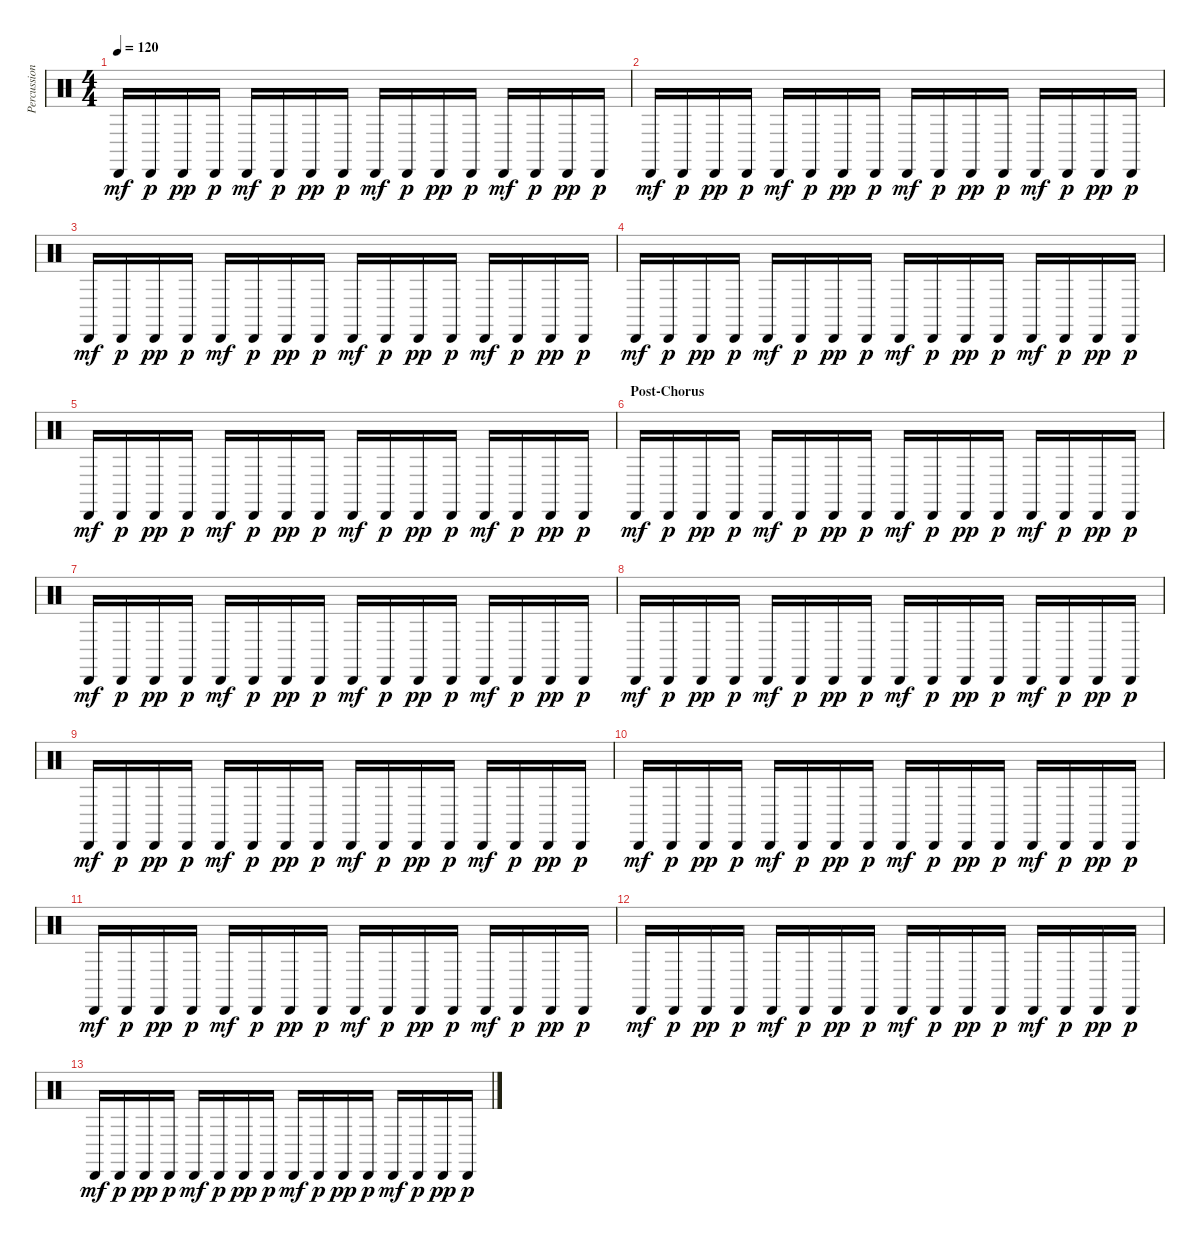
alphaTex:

\track ("Percussion" "Percussion") {instrument percussion}
\staff {score}
\articulation defaults
\ts (4 4)
\tempo 120
\clef neutral
\ks c "Cabasa (hit)".16{dy mf} "Cabasa (hit)".16{dy p} "Cabasa (hit)".16{dy pp} "Cabasa (hit)".16{dy p} "Cabasa (hit)".16{dy mf} "Cabasa (hit)".16{dy p} "Cabasa (hit)".16{dy pp} "Cabasa (hit)".16{dy p} "Cabasa (hit)".16{dy mf} "Cabasa (hit)".16{dy p} "Cabasa (hit)".16{dy pp} "Cabasa (hit)".16{dy p} "Cabasa (hit)".16{dy mf} "Cabasa (hit)".16{dy p} "Cabasa (hit)".16{dy pp} "Cabasa (hit)".16{dy p}
|
"Cabasa (hit)".16{dy mf} "Cabasa (hit)".16{dy p} "Cabasa (hit)".16{dy pp} "Cabasa (hit)".16{dy p} "Cabasa (hit)".16{dy mf} "Cabasa (hit)".16{dy p} "Cabasa (hit)".16{dy pp} "Cabasa (hit)".16{dy p} "Cabasa (hit)".16{dy mf} "Cabasa (hit)".16{dy p} "Cabasa (hit)".16{dy pp} "Cabasa (hit)".16{dy p} "Cabasa (hit)".16{dy mf} "Cabasa (hit)".16{dy p} "Cabasa (hit)".16{dy pp} "Cabasa (hit)".16{dy p} |
"Cabasa (hit)".16{dy mf} "Cabasa (hit)".16{dy p} "Cabasa (hit)".16{dy pp} "Cabasa (hit)".16{dy p} "Cabasa (hit)".16{dy mf} "Cabasa (hit)".16{dy p} "Cabasa (hit)".16{dy pp} "Cabasa (hit)".16{dy p} "Cabasa (hit)".16{dy mf} "Cabasa (hit)".16{dy p} "Cabasa (hit)".16{dy pp} "Cabasa (hit)".16{dy p} "Cabasa (hit)".16{dy mf} "Cabasa (hit)".16{dy p} "Cabasa (hit)".16{dy pp} "Cabasa (hit)".16{dy p} |
"Cabasa (hit)".16{dy mf} "Cabasa (hit)".16{dy p} "Cabasa (hit)".16{dy pp} "Cabasa (hit)".16{dy p} "Cabasa (hit)".16{dy mf} "Cabasa (hit)".16{dy p} "Cabasa (hit)".16{dy pp} "Cabasa (hit)".16{dy p} "Cabasa (hit)".16{dy mf} "Cabasa (hit)".16{dy p} "Cabasa (hit)".16{dy pp} "Cabasa (hit)".16{dy p} "Cabasa (hit)".16{dy mf} "Cabasa (hit)".16{dy p} "Cabasa (hit)".16{dy pp} "Cabasa (hit)".16{dy p} |
"Cabasa (hit)".16{dy mf} "Cabasa (hit)".16{dy p} "Cabasa (hit)".16{dy pp} "Cabasa (hit)".16{dy p} "Cabasa (hit)".16{dy mf} "Cabasa (hit)".16{dy p} "Cabasa (hit)".16{dy pp} "Cabasa (hit)".16{dy p} "Cabasa (hit)".16{dy mf} "Cabasa (hit)".16{dy p} "Cabasa (hit)".16{dy pp} "Cabasa (hit)".16{dy p} "Cabasa (hit)".16{dy mf} "Cabasa (hit)".16{dy p} "Cabasa (hit)".16{dy pp} "Cabasa (hit)".16{dy p} |
\section ("" "Post-Chorus")
"Cabasa (hit)".16{dy mf} "Cabasa (hit)".16{dy p} "Cabasa (hit)".16{dy pp} "Cabasa (hit)".16{dy p} "Cabasa (hit)".16{dy mf} "Cabasa (hit)".16{dy p} "Cabasa (hit)".16{dy pp} "Cabasa (hit)".16{dy p} "Cabasa (hit)".16{dy mf} "Cabasa (hit)".16{dy p} "Cabasa (hit)".16{dy pp} "Cabasa (hit)".16{dy p} "Cabasa (hit)".16{dy mf} "Cabasa (hit)".16{dy p} "Cabasa (hit)".16{dy pp} "Cabasa (hit)".16{dy p} |
"Cabasa (hit)".16{dy mf} "Cabasa (hit)".16{dy p} "Cabasa (hit)".16{dy pp} "Cabasa (hit)".16{dy p} "Cabasa (hit)".16{dy mf} "Cabasa (hit)".16{dy p} "Cabasa (hit)".16{dy pp} "Cabasa (hit)".16{dy p} "Cabasa (hit)".16{dy mf} "Cabasa (hit)".16{dy p} "Cabasa (hit)".16{dy pp} "Cabasa (hit)".16{dy p} "Cabasa (hit)".16{dy mf} "Cabasa (hit)".16{dy p} "Cabasa (hit)".16{dy pp} "Cabasa (hit)".16{dy p} |
"Cabasa (hit)".16{dy mf} "Cabasa (hit)".16{dy p} "Cabasa (hit)".16{dy pp} "Cabasa (hit)".16{dy p} "Cabasa (hit)".16{dy mf} "Cabasa (hit)".16{dy p} "Cabasa (hit)".16{dy pp} "Cabasa (hit)".16{dy p} "Cabasa (hit)".16{dy mf} "Cabasa (hit)".16{dy p} "Cabasa (hit)".16{dy pp} "Cabasa (hit)".16{dy p} "Cabasa (hit)".16{dy mf} "Cabasa (hit)".16{dy p} "Cabasa (hit)".16{dy pp} "Cabasa (hit)".16{dy p} |
"Cabasa (hit)".16{dy mf} "Cabasa (hit)".16{dy p} "Cabasa (hit)".16{dy pp} "Cabasa (hit)".16{dy p} "Cabasa (hit)".16{dy mf} "Cabasa (hit)".16{dy p} "Cabasa (hit)".16{dy pp} "Cabasa (hit)".16{dy p} "Cabasa (hit)".16{dy mf} "Cabasa (hit)".16{dy p} "Cabasa (hit)".16{dy pp} "Cabasa (hit)".16{dy p} "Cabasa (hit)".16{dy mf} "Cabasa (hit)".16{dy p} "Cabasa (hit)".16{dy pp} "Cabasa (hit)".16{dy p} |
"Cabasa (hit)".16{dy mf} "Cabasa (hit)".16{dy p} "Cabasa (hit)".16{dy pp} "Cabasa (hit)".16{dy p} "Cabasa (hit)".16{dy mf} "Cabasa (hit)".16{dy p} "Cabasa (hit)".16{dy pp} "Cabasa (hit)".16{dy p} "Cabasa (hit)".16{dy mf} "Cabasa (hit)".16{dy p} "Cabasa (hit)".16{dy pp} "Cabasa (hit)".16{dy p} "Cabasa (hit)".16{dy mf} "Cabasa (hit)".16{dy p} "Cabasa (hit)".16{dy pp} "Cabasa (hit)".16{dy p} |
"Cabasa (hit)".16{dy mf} "Cabasa (hit)".16{dy p} "Cabasa (hit)".16{dy pp} "Cabasa (hit)".16{dy p} "Cabasa (hit)".16{dy mf} "Cabasa (hit)".16{dy p} "Cabasa (hit)".16{dy pp} "Cabasa (hit)".16{dy p} "Cabasa (hit)".16{dy mf} "Cabasa (hit)".16{dy p} "Cabasa (hit)".16{dy pp} "Cabasa (hit)".16{dy p} "Cabasa (hit)".16{dy mf} "Cabasa (hit)".16{dy p} "Cabasa (hit)".16{dy pp} "Cabasa (hit)".16{dy p} |
"Cabasa (hit)".16{dy mf} "Cabasa (hit)".16{dy p} "Cabasa (hit)".16{dy pp} "Cabasa (hit)".16{dy p} "Cabasa (hit)".16{dy mf} "Cabasa (hit)".16{dy p} "Cabasa (hit)".16{dy pp} "Cabasa (hit)".16{dy p} "Cabasa (hit)".16{dy mf} "Cabasa (hit)".16{dy p} "Cabasa (hit)".16{dy pp} "Cabasa (hit)".16{dy p} "Cabasa (hit)".16{dy mf} "Cabasa (hit)".16{dy p} "Cabasa (hit)".16{dy pp} "Cabasa (hit)".16{dy p} |
"Cabasa (hit)".16{dy mf} "Cabasa (hit)".16{dy p} "Cabasa (hit)".16{dy pp} "Cabasa (hit)".16{dy p} "Cabasa (hit)".16{dy mf} "Cabasa (hit)".16{dy p} "Cabasa (hit)".16{dy pp} "Cabasa (hit)".16{dy p} "Cabasa (hit)".16{dy mf} "Cabasa (hit)".16{dy p} "Cabasa (hit)".16{dy pp} "Cabasa (hit)".16{dy p} "Cabasa (hit)".16{dy mf} "Cabasa (hit)".16{dy p} "Cabasa (hit)".16{dy pp} "Cabasa (hit)".16{dy p}
